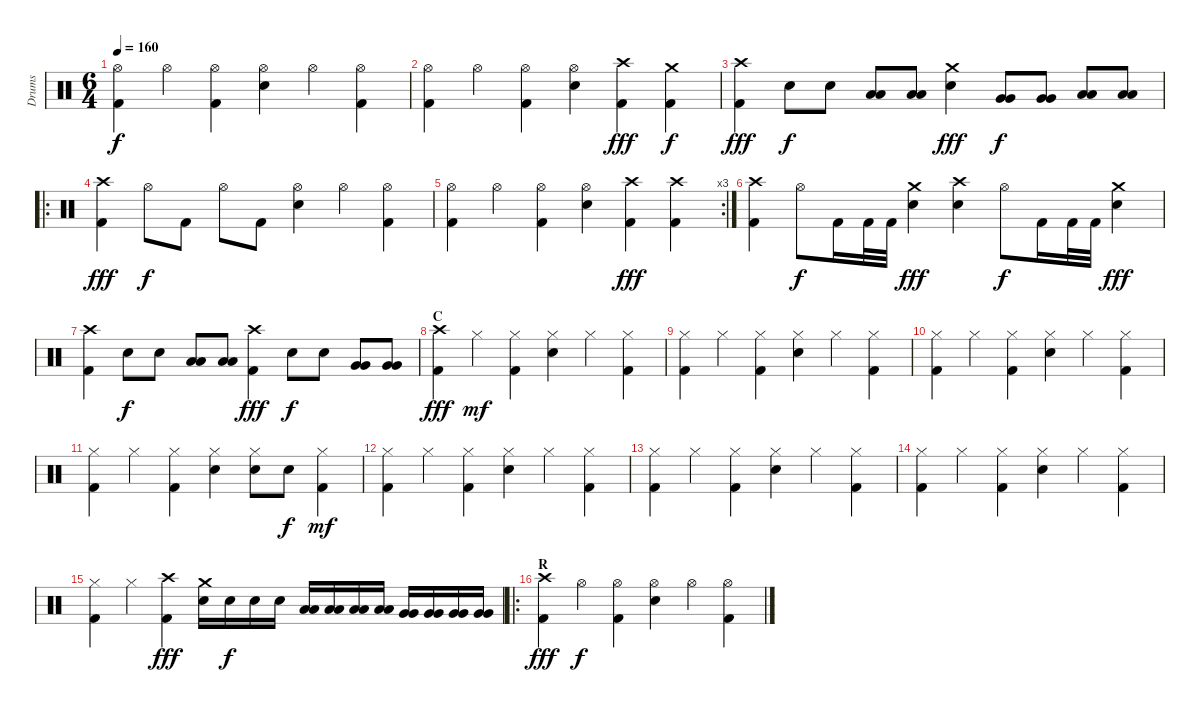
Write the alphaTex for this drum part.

\track ("Drums" "Drums") {instrument percussion}
\staff {score}
\articulation defaults
\ts (6 4)
\tempo 160
\clef neutral
\ks c
("Kick (hit) 2" "Hi-Hat (open)").4{dy f} "Hi-Hat (open)".4 ("Kick (hit) 2" "Hi-Hat (open)").4 ("Electric Snare (hit)" "Hi-Hat (open)").4 "Hi-Hat (open)".4 ("Kick (hit) 2" "Hi-Hat (open)").4 |
("Kick (hit) 2" "Hi-Hat (open)").4 "Hi-Hat (open)".4 ("Kick (hit) 2" "Hi-Hat (open)").4 ("Electric Snare (hit)" "Hi-Hat (open)").4 ("Kick (hit) 2" "Crash high (hit)").4{dy fff} ("Kick (hit) 2" "Crash medium (hit)").4{dy f} |
("Kick (hit) 2" "Crash high (hit)").4{dy fff} "Electric Snare (hit)".8{dy f} "Electric Snare (hit)".8 ("Low Tom (hit)" "Low Tom (hit)").8 ("Low Tom (hit)" "Low Tom (hit)").8 ("Electric Snare (hit)" "Crash medium (hit)").4{dy fff} ("Very Low Tom (hit)" "Very Low Tom (hit)").8{dy f} ("Very Low Tom (hit)" "Very Low Tom (hit)").8 ("Low Floor Tom (hit)" "Low Floor Tom (hit)").8 ("Low Floor Tom (hit)" "Low Floor Tom (hit)").8 |
\ro
("Kick (hit) 2" "Crash high (hit)").4{dy fff} "Hi-Hat (open)".8{dy f} "Kick (hit) 2".8 "Hi-Hat (open)".8 "Kick (hit) 2".8 ("Electric Snare (hit)" "Hi-Hat (open)").4 "Hi-Hat (open)".4 ("Kick (hit) 2" "Hi-Hat (open)").4 |
\rc 3
("Kick (hit) 2" "Hi-Hat (open)").4 "Hi-Hat (open)".4 ("Kick (hit) 2" "Hi-Hat (open)").4 ("Electric Snare (hit)" "Hi-Hat (open)").4 ("Kick (hit) 2" "Crash high (hit)").4{dy fff} ("Kick (hit) 2" "Crash high (hit)").4 |
("Kick (hit) 2" "Crash high (hit)").4 "Hi-Hat (open)".8{dy f} "Kick (hit) 2".16 "Kick (hit) 2".32 "Kick (hit) 2".32 ("Electric Snare (hit)" "Crash medium (hit)").4{dy fff} ("Electric Snare (hit)" "Crash high (hit)").4 "Hi-Hat (open)".8{dy f} "Kick (hit) 2".16 "Kick (hit) 2".32 "Kick (hit) 2".32 ("Electric Snare (hit)" "Crash medium (hit)").4{dy fff} |
("Kick (hit) 2" "Crash high (hit)").4 "Electric Snare (hit)".8{dy f} "Electric Snare (hit)".8 ("Low Tom (hit)" "Low Tom (hit)").8 ("Low Tom (hit)" "Low Tom (hit)").8 ("Kick (hit) 2" "Crash high (hit)").4{dy fff} "Electric Snare (hit)".8{dy f} "Electric Snare (hit)".8 ("Very Low Tom (hit)" "Very Low Tom (hit)").8 ("Very Low Tom (hit)" "Very Low Tom (hit)").8 |
\section ("" "C")
("Kick (hit) 2" "Crash high (hit)").4{dy fff} "Hi-Hat (closed)".4{dy mf} ("Kick (hit) 2" "Hi-Hat (closed)").4 ("Electric Snare (hit)" "Hi-Hat (closed)").4 "Hi-Hat (closed)".4 ("Kick (hit) 2" "Hi-Hat (closed)").4 |
("Kick (hit) 2" "Hi-Hat (closed)").4 "Hi-Hat (closed)".4 ("Kick (hit) 2" "Hi-Hat (closed)").4 ("Electric Snare (hit)" "Hi-Hat (closed)").4 "Hi-Hat (closed)".4 ("Kick (hit) 2" "Hi-Hat (closed)").4 |
("Kick (hit) 2" "Hi-Hat (closed)").4 "Hi-Hat (closed)".4 ("Kick (hit) 2" "Hi-Hat (closed)").4 ("Electric Snare (hit)" "Hi-Hat (closed)").4 "Hi-Hat (closed)".4 ("Kick (hit) 2" "Hi-Hat (closed)").4 |
("Kick (hit) 2" "Hi-Hat (closed)").4 "Hi-Hat (closed)".4 ("Kick (hit) 2" "Hi-Hat (closed)").4 ("Electric Snare (hit)" "Hi-Hat (closed)").4 ("Electric Snare (hit)" "Hi-Hat (closed)").8 "Electric Snare (hit)".8{dy f} ("Kick (hit) 2" "Hi-Hat (closed)").4{dy mf} |
("Kick (hit) 2" "Hi-Hat (closed)").4 "Hi-Hat (closed)".4 ("Kick (hit) 2" "Hi-Hat (closed)").4 ("Electric Snare (hit)" "Hi-Hat (closed)").4 "Hi-Hat (closed)".4 ("Kick (hit) 2" "Hi-Hat (closed)").4 |
("Kick (hit) 2" "Hi-Hat (closed)").4 "Hi-Hat (closed)".4 ("Kick (hit) 2" "Hi-Hat (closed)").4 ("Electric Snare (hit)" "Hi-Hat (closed)").4 "Hi-Hat (closed)".4 ("Kick (hit) 2" "Hi-Hat (closed)").4 |
("Kick (hit) 2" "Hi-Hat (closed)").4 "Hi-Hat (closed)".4 ("Kick (hit) 2" "Hi-Hat (closed)").4 ("Electric Snare (hit)" "Hi-Hat (closed)").4 "Hi-Hat (closed)".4 ("Kick (hit) 2" "Hi-Hat (closed)").4 |
("Kick (hit) 2" "Hi-Hat (closed)").4 "Hi-Hat (closed)".4 ("Kick (hit) 2" "Crash high (hit)").4{dy fff} ("Electric Snare (hit)" "Crash medium (hit)").16 "Electric Snare (hit)".16{dy f} "Electric Snare (hit)".16 "Electric Snare (hit)".16 ("Low Tom (hit)" "Low Tom (hit)").16 ("Low Tom (hit)" "Low Tom (hit)").16 ("Low Tom (hit)" "Low Tom (hit)").16 ("Low Tom (hit)" "Low Tom (hit)").16 ("Very Low Tom (hit)" "Very Low Tom (hit)").16 ("Very Low Tom (hit)" "Very Low Tom (hit)").16 ("Very Low Tom (hit)" "Very Low Tom (hit)").16 ("Very Low Tom (hit)" "Very Low Tom (hit)").16 |
\ro
\section ("" "R")
("Kick (hit) 2" "Crash high (hit)").4{dy fff} "Hi-Hat (open)".4{dy f} ("Kick (hit) 2" "Hi-Hat (open)").4 ("Electric Snare (hit)" "Hi-Hat (open)").4 "Hi-Hat (open)".4 ("Kick (hit) 2" "Hi-Hat (open)").4
